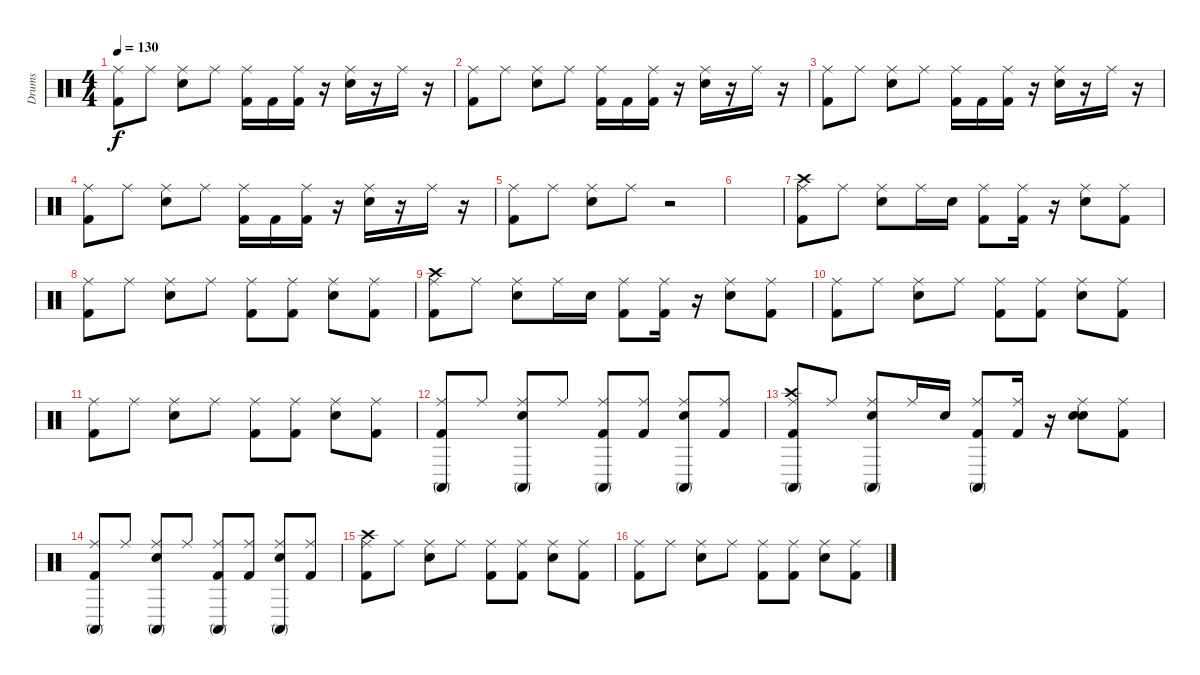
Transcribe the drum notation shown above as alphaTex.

\track ("Drums" "Drums") {instrument percussion}
\staff {score}
\articulation defaults
\ts (4 4)
\tempo 130
\clef neutral
\ks c
("Ride (middle)" "Kick (hit) 2").8{dy f} "Ride (middle)".8 ("Ride (middle)" "Electric Snare (hit)").8 "Ride (middle)".8 ("Ride (middle)" "Kick (hit) 2").16 "Kick (hit) 2".16 ("Ride (middle)" "Kick (hit) 2").16 r.16 ("Ride (middle)" "Electric Snare (hit)").16 r.16 "Ride (middle)".16 r.16 |
("Ride (middle)" "Kick (hit) 2").8 "Ride (middle)".8 ("Ride (middle)" "Electric Snare (hit)").8 "Ride (middle)".8 ("Ride (middle)" "Kick (hit) 2").16 "Kick (hit) 2".16 ("Ride (middle)" "Kick (hit) 2").16 r.16 ("Ride (middle)" "Electric Snare (hit)").16 r.16 "Ride (middle)".16 r.16 |
("Ride (middle)" "Kick (hit) 2").8 "Ride (middle)".8 ("Ride (middle)" "Electric Snare (hit)").8 "Ride (middle)".8 ("Ride (middle)" "Kick (hit) 2").16 "Kick (hit) 2".16 ("Ride (middle)" "Kick (hit) 2").16 r.16 ("Ride (middle)" "Electric Snare (hit)").16 r.16 "Ride (middle)".16 r.16 |
("Ride (middle)" "Kick (hit) 2").8 "Ride (middle)".8 ("Ride (middle)" "Electric Snare (hit)").8 "Ride (middle)".8 ("Ride (middle)" "Kick (hit) 2").16 "Kick (hit) 2".16 ("Ride (middle)" "Kick (hit) 2").16 r.16 ("Ride (middle)" "Electric Snare (hit)").16 r.16 "Ride (middle)".16 r.16 |
("Ride (middle)" "Kick (hit) 2").8 "Ride (middle)".8 ("Ride (middle)" "Electric Snare (hit)").8 "Ride (middle)".8 r.2 |
|
("Ride (middle)" "Crash high (hit)" "Kick (hit) 2").8 "Ride (middle)".8 ("Ride (middle)" "Electric Snare (hit)").8 "Ride (middle)".16 "Electric Snare (hit)".16 ("Ride (middle)" "Kick (hit) 2").8 ("Ride (middle)" "Kick (hit) 2").16 r.16 ("Ride (middle)" "Electric Snare (hit)").8 ("Ride (middle)" "Kick (hit) 2").8 |
("Ride (middle)" "Kick (hit) 2").8 "Ride (middle)".8 ("Ride (middle)" "Electric Snare (hit)").8 "Ride (middle)".8 ("Ride (middle)" "Kick (hit) 2").8 ("Ride (middle)" "Kick (hit) 2").8 ("Ride (middle)" "Electric Snare (hit)").8 ("Ride (middle)" "Kick (hit) 2").8 |
("Ride (middle)" "Crash high (hit)" "Kick (hit) 2").8 "Ride (middle)".8 ("Ride (middle)" "Electric Snare (hit)").8 "Ride (middle)".16 "Electric Snare (hit)".16 ("Ride (middle)" "Kick (hit) 2").8 ("Ride (middle)" "Kick (hit) 2").16 r.16 ("Ride (middle)" "Electric Snare (hit)").8 ("Ride (middle)" "Kick (hit) 2").8 |
("Ride (middle)" "Kick (hit) 2").8 "Ride (middle)".8 ("Ride (middle)" "Electric Snare (hit)").8 "Ride (middle)".8 ("Ride (middle)" "Kick (hit) 2").8 ("Ride (middle)" "Kick (hit) 2").8 ("Ride (middle)" "Electric Snare (hit)").8 ("Ride (middle)" "Kick (hit) 2").8 |
("Ride (middle)" "Kick (hit) 2").8 "Ride (middle)".8 ("Ride (middle)" "Electric Snare (hit)").8 "Ride (middle)".8 ("Ride (middle)" "Kick (hit) 2").8 ("Ride (middle)" "Kick (hit) 2").8 ("Ride (middle)" "Electric Snare (hit)").8 ("Ride (middle)" "Kick (hit) 2").8 |
("Ride (middle)" "Kick (hit) 2" "Conga high (mute)").8 "Ride (middle)".8 ("Ride (middle)" "Electric Snare (hit)" "Conga high (mute)").8 "Ride (middle)".8 ("Ride (middle)" "Kick (hit) 2" "Conga high (mute)").8 ("Ride (middle)" "Kick (hit) 2").8 ("Ride (middle)" "Electric Snare (hit)" "Conga high (mute)").8 ("Ride (middle)" "Kick (hit) 2").8 |
("Ride (middle)" "Crash high (hit)" "Kick (hit) 2" "Conga high (mute)").8 "Ride (middle)".8 ("Ride (middle)" "Electric Snare (hit)" "Conga high (mute)").8 "Ride (middle)".16 "Electric Snare (hit)".16 ("Ride (middle)" "Kick (hit) 2" "Conga high (mute)").8 ("Ride (middle)" "Kick (hit) 2").16 r.16 ("Ride (middle)" "Electric Snare (hit)" "Snare (hit)").8 ("Ride (middle)" "Kick (hit) 2").8 |
("Ride (middle)" "Kick (hit) 2" "Conga high (mute)").8 "Ride (middle)".8 ("Ride (middle)" "Electric Snare (hit)" "Conga high (mute)").8 "Ride (middle)".8 ("Ride (middle)" "Kick (hit) 2" "Conga high (mute)").8 ("Ride (middle)" "Kick (hit) 2").8 ("Ride (middle)" "Electric Snare (hit)" "Conga high (mute)").8 ("Ride (middle)" "Kick (hit) 2").8 |
("Ride (middle)" "Crash high (hit)" "Kick (hit) 2").8 "Ride (middle)".8 ("Ride (middle)" "Electric Snare (hit)").8 "Ride (middle)".8 ("Ride (middle)" "Kick (hit) 2").8 ("Ride (middle)" "Kick (hit) 2").8 ("Ride (middle)" "Electric Snare (hit)").8 ("Ride (middle)" "Kick (hit) 2").8 |
("Ride (middle)" "Kick (hit) 2").8 "Ride (middle)".8 ("Ride (middle)" "Electric Snare (hit)").8 "Ride (middle)".8 ("Ride (middle)" "Kick (hit) 2").8 ("Ride (middle)" "Kick (hit) 2").8 ("Ride (middle)" "Electric Snare (hit)").8 ("Ride (middle)" "Kick (hit) 2").8
